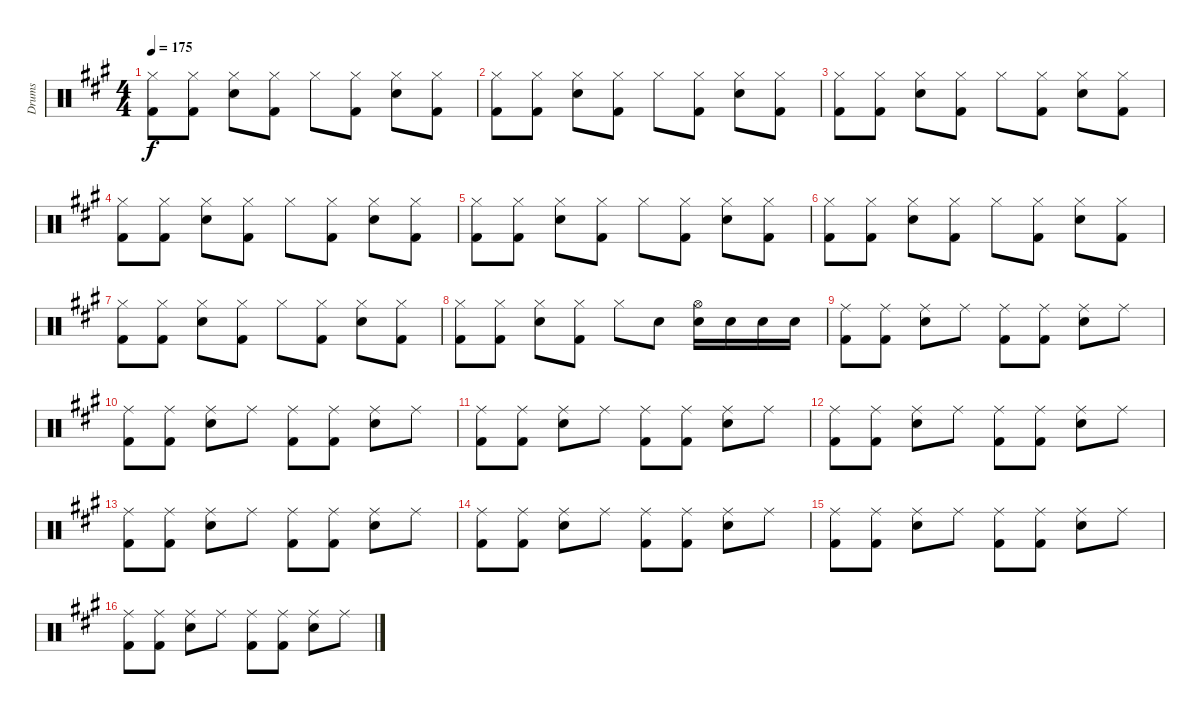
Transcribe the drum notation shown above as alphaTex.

\track ("Drums" "Drums") {instrument percussion}
\staff {score}
\articulation defaults
\ts (4 4)
\tempo 175
\clef neutral
\ks f#minor
("Hi-Hat (closed)" "Kick (hit) 2").8{dy f} ("Hi-Hat (closed)" "Kick (hit) 2").8 ("Hi-Hat (closed)" "Snare (hit) 2").8 ("Hi-Hat (closed)" "Kick (hit) 2").8 "Hi-Hat (closed)".8 ("Hi-Hat (closed)" "Kick (hit) 2").8 ("Hi-Hat (closed)" "Snare (hit) 2").8 ("Hi-Hat (closed)" "Kick (hit) 2").8 |
("Hi-Hat (closed)" "Kick (hit) 2").8 ("Hi-Hat (closed)" "Kick (hit) 2").8 ("Hi-Hat (closed)" "Snare (hit) 2").8 ("Hi-Hat (closed)" "Kick (hit) 2").8 "Hi-Hat (closed)".8 ("Hi-Hat (closed)" "Kick (hit) 2").8 ("Hi-Hat (closed)" "Snare (hit) 2").8 ("Hi-Hat (closed)" "Kick (hit) 2").8 |
("Hi-Hat (closed)" "Kick (hit) 2").8 ("Hi-Hat (closed)" "Kick (hit) 2").8 ("Hi-Hat (closed)" "Snare (hit) 2").8 ("Hi-Hat (closed)" "Kick (hit) 2").8 "Hi-Hat (closed)".8 ("Hi-Hat (closed)" "Kick (hit) 2").8 ("Hi-Hat (closed)" "Snare (hit) 2").8 ("Hi-Hat (closed)" "Kick (hit) 2").8 |
("Hi-Hat (closed)" "Kick (hit) 2").8 ("Hi-Hat (closed)" "Kick (hit) 2").8 ("Hi-Hat (closed)" "Snare (hit) 2").8 ("Hi-Hat (closed)" "Kick (hit) 2").8 "Hi-Hat (closed)".8 ("Hi-Hat (closed)" "Kick (hit) 2").8 ("Hi-Hat (closed)" "Snare (hit) 2").8 ("Hi-Hat (closed)" "Kick (hit) 2").8 |
("Hi-Hat (closed)" "Kick (hit) 2").8 ("Hi-Hat (closed)" "Kick (hit) 2").8 ("Hi-Hat (closed)" "Snare (hit) 2").8 ("Hi-Hat (closed)" "Kick (hit) 2").8 "Hi-Hat (closed)".8 ("Hi-Hat (closed)" "Kick (hit) 2").8 ("Hi-Hat (closed)" "Snare (hit) 2").8 ("Hi-Hat (closed)" "Kick (hit) 2").8 |
("Hi-Hat (closed)" "Kick (hit) 2").8 ("Hi-Hat (closed)" "Kick (hit) 2").8 ("Hi-Hat (closed)" "Snare (hit) 2").8 ("Hi-Hat (closed)" "Kick (hit) 2").8 "Hi-Hat (closed)".8 ("Hi-Hat (closed)" "Kick (hit) 2").8 ("Hi-Hat (closed)" "Snare (hit) 2").8 ("Hi-Hat (closed)" "Kick (hit) 2").8 |
("Hi-Hat (closed)" "Kick (hit) 2").8 ("Hi-Hat (closed)" "Kick (hit) 2").8 ("Hi-Hat (closed)" "Snare (hit) 2").8 ("Hi-Hat (closed)" "Kick (hit) 2").8 "Hi-Hat (closed)".8 ("Hi-Hat (closed)" "Kick (hit) 2").8 ("Hi-Hat (closed)" "Snare (hit) 2").8 ("Hi-Hat (closed)" "Kick (hit) 2").8 |
("Hi-Hat (closed)" "Kick (hit) 2").8 ("Hi-Hat (closed)" "Kick (hit) 2").8 ("Hi-Hat (closed)" "Snare (hit) 2").8 ("Hi-Hat (closed)" "Kick (hit) 2").8 "Hi-Hat (closed)".8 "Snare (hit) 2".8 ("Hi-Hat (open)" "Snare (hit) 2").16 "Snare (hit) 2".16 "Snare (hit) 2".16 "Snare (hit) 2".16 |
("Ride (middle)" "Kick (hit) 2").8 ("Ride (middle)" "Kick (hit) 2").8 ("Ride (middle)" "Snare (hit) 2").8 "Ride (middle)".8 ("Ride (middle)" "Kick (hit) 2").8 ("Ride (middle)" "Kick (hit) 2").8 ("Ride (middle)" "Snare (hit) 2").8 "Ride (middle)".8 |
("Ride (middle)" "Kick (hit) 2").8 ("Ride (middle)" "Kick (hit) 2").8 ("Ride (middle)" "Snare (hit) 2").8 "Ride (middle)".8 ("Ride (middle)" "Kick (hit) 2").8 ("Ride (middle)" "Kick (hit) 2").8 ("Ride (middle)" "Snare (hit) 2").8 "Ride (middle)".8 |
("Ride (middle)" "Kick (hit) 2").8 ("Ride (middle)" "Kick (hit) 2").8 ("Ride (middle)" "Snare (hit) 2").8 "Ride (middle)".8 ("Ride (middle)" "Kick (hit) 2").8 ("Ride (middle)" "Kick (hit) 2").8 ("Ride (middle)" "Snare (hit) 2").8 "Ride (middle)".8 |
("Ride (middle)" "Kick (hit) 2").8 ("Ride (middle)" "Kick (hit) 2").8 ("Ride (middle)" "Snare (hit) 2").8 "Ride (middle)".8 ("Ride (middle)" "Kick (hit) 2").8 ("Ride (middle)" "Kick (hit) 2").8 ("Ride (middle)" "Snare (hit) 2").8 "Ride (middle)".8 |
("Ride (middle)" "Kick (hit) 2").8 ("Ride (middle)" "Kick (hit) 2").8 ("Ride (middle)" "Snare (hit) 2").8 "Ride (middle)".8 ("Ride (middle)" "Kick (hit) 2").8 ("Ride (middle)" "Kick (hit) 2").8 ("Ride (middle)" "Snare (hit) 2").8 "Ride (middle)".8 |
("Ride (middle)" "Kick (hit) 2").8 ("Ride (middle)" "Kick (hit) 2").8 ("Ride (middle)" "Snare (hit) 2").8 "Ride (middle)".8 ("Ride (middle)" "Kick (hit) 2").8 ("Ride (middle)" "Kick (hit) 2").8 ("Ride (middle)" "Snare (hit) 2").8 "Ride (middle)".8 |
("Ride (middle)" "Kick (hit) 2").8 ("Ride (middle)" "Kick (hit) 2").8 ("Ride (middle)" "Snare (hit) 2").8 "Ride (middle)".8 ("Ride (middle)" "Kick (hit) 2").8 ("Ride (middle)" "Kick (hit) 2").8 ("Ride (middle)" "Snare (hit) 2").8 "Ride (middle)".8 |
("Ride (middle)" "Kick (hit) 2").8 ("Ride (middle)" "Kick (hit) 2").8 ("Ride (middle)" "Snare (hit) 2").8 "Ride (middle)".8 ("Ride (middle)" "Kick (hit) 2").8 ("Ride (middle)" "Kick (hit) 2").8 ("Ride (middle)" "Snare (hit) 2").8 "Ride (middle)".8
